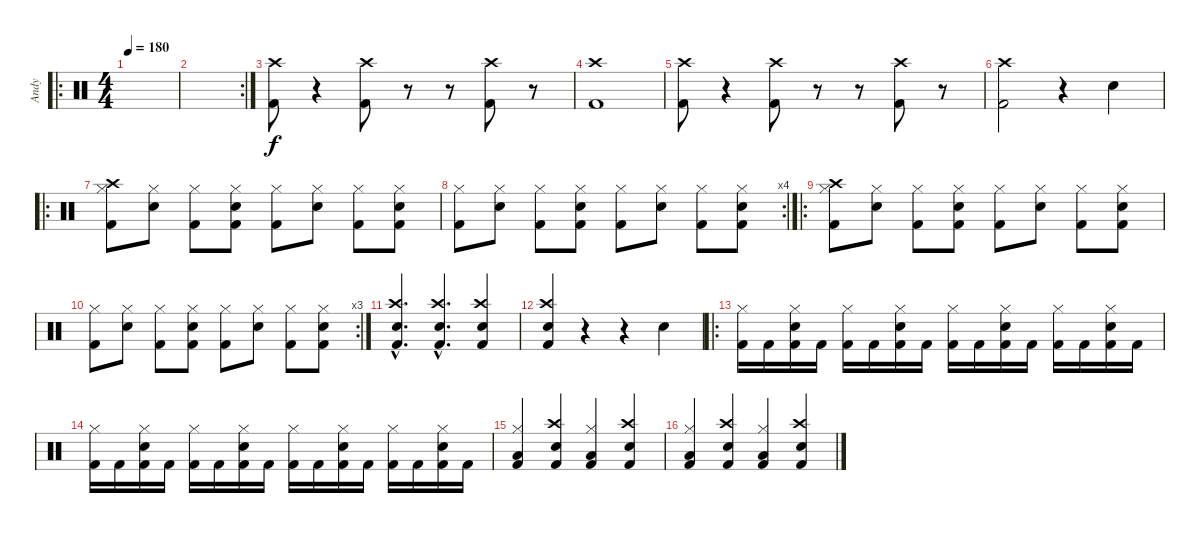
\track ("Andy" "Andy") {instrument percussion}
\staff {score}
\articulation defaults
\ro
\ts (4 4)
\tempo 180
\clef neutral
\ks c
|
\rc 2
|
("Kick (hit) 2" "Crash high (hit)").8 r.4 ("Kick (hit) 2" "Crash high (hit)").8 r.8 r.8 ("Kick (hit) 2" "Crash high (hit)").8 r.8 |
("Kick (hit) 2" "Crash high (hit)").1 |
("Kick (hit) 2" "Crash high (hit)").8 r.4 ("Kick (hit) 2" "Crash high (hit)").8 r.8 r.8 ("Kick (hit) 2" "Crash high (hit)").8 r.8 |
("Kick (hit) 2" "Crash high (hit)").2 r.4 "Electric Snare (hit)".4 |
\ro
("Hi-Hat (closed)" "Kick (hit) 2" "Crash high (hit)").8 ("Hi-Hat (closed)" "Electric Snare (hit)").8 ("Hi-Hat (closed)" "Kick (hit) 2").8 ("Hi-Hat (closed)" "Electric Snare (hit)" "Kick (hit) 2").8 ("Hi-Hat (closed)" "Kick (hit) 2").8 ("Hi-Hat (closed)" "Electric Snare (hit)").8 ("Hi-Hat (closed)" "Kick (hit) 2").8 ("Hi-Hat (closed)" "Electric Snare (hit)" "Kick (hit) 2").8 |
\rc 4
("Hi-Hat (closed)" "Kick (hit) 2").8 ("Hi-Hat (closed)" "Electric Snare (hit)").8 ("Hi-Hat (closed)" "Kick (hit) 2").8 ("Hi-Hat (closed)" "Electric Snare (hit)" "Kick (hit) 2").8 ("Hi-Hat (closed)" "Kick (hit) 2").8 ("Hi-Hat (closed)" "Electric Snare (hit)").8 ("Hi-Hat (closed)" "Kick (hit) 2").8 ("Hi-Hat (closed)" "Electric Snare (hit)" "Kick (hit) 2").8 |
\ro
("Hi-Hat (closed)" "Kick (hit) 2" "Crash high (hit)").8 ("Hi-Hat (closed)" "Electric Snare (hit)").8 ("Hi-Hat (closed)" "Kick (hit) 2").8 ("Hi-Hat (closed)" "Electric Snare (hit)" "Kick (hit) 2").8 ("Hi-Hat (closed)" "Kick (hit) 2").8 ("Hi-Hat (closed)" "Electric Snare (hit)").8 ("Hi-Hat (closed)" "Kick (hit) 2").8 ("Hi-Hat (closed)" "Electric Snare (hit)" "Kick (hit) 2").8 |
\rc 3
("Hi-Hat (closed)" "Kick (hit) 2").8 ("Hi-Hat (closed)" "Electric Snare (hit)").8 ("Hi-Hat (closed)" "Kick (hit) 2").8 ("Hi-Hat (closed)" "Electric Snare (hit)" "Kick (hit) 2").8 ("Hi-Hat (closed)" "Kick (hit) 2").8 ("Hi-Hat (closed)" "Electric Snare (hit)").8 ("Hi-Hat (closed)" "Kick (hit) 2").8 ("Hi-Hat (closed)" "Electric Snare (hit)" "Kick (hit) 2").8 |
("Electric Snare (hit)"{hac} "Crash high (hit)"{hac} "Kick (hit) 2"{hac}).4{d} ("Electric Snare (hit)"{hac} "Crash high (hit)"{hac} "Kick (hit) 2"{hac}).4{d} ("Electric Snare (hit)" "Crash high (hit)" "Kick (hit) 2").4 |
("Electric Snare (hit)" "Crash high (hit)" "Kick (hit) 2").4 r.4 r.4 "Electric Snare (hit)".4 |
\ro
("Kick (hit) 2" "Hi-Hat (closed)").16 "Kick (hit) 2".16 ("Kick (hit) 2" "Hi-Hat (closed)" "Electric Snare (hit)").16 "Kick (hit) 2".16 ("Kick (hit) 2" "Hi-Hat (closed)").16 "Kick (hit) 2".16 ("Kick (hit) 2" "Hi-Hat (closed)" "Electric Snare (hit)").16 "Kick (hit) 2".16 ("Kick (hit) 2" "Hi-Hat (closed)").16 "Kick (hit) 2".16 ("Kick (hit) 2" "Hi-Hat (closed)" "Electric Snare (hit)").16 "Kick (hit) 2".16 ("Kick (hit) 2" "Hi-Hat (closed)").16 "Kick (hit) 2".16 ("Kick (hit) 2" "Hi-Hat (closed)" "Electric Snare (hit)").16 "Kick (hit) 2".16 |
("Kick (hit) 2" "Hi-Hat (closed)").16 "Kick (hit) 2".16 ("Kick (hit) 2" "Hi-Hat (closed)" "Electric Snare (hit)").16 "Kick (hit) 2".16 ("Kick (hit) 2" "Hi-Hat (closed)").16 "Kick (hit) 2".16 ("Kick (hit) 2" "Hi-Hat (closed)" "Electric Snare (hit)").16 "Kick (hit) 2".16 ("Kick (hit) 2" "Hi-Hat (closed)").16 "Kick (hit) 2".16 ("Kick (hit) 2" "Hi-Hat (closed)" "Electric Snare (hit)").16 "Kick (hit) 2".16 ("Kick (hit) 2" "Hi-Hat (closed)").16 "Kick (hit) 2".16 ("Kick (hit) 2" "Hi-Hat (closed)" "Electric Snare (hit)").16 "Kick (hit) 2".16 |
("Kick (hit) 2" "Low Tom (hit)" "Hi-Hat (closed)").4 ("Kick (hit) 2" "Electric Snare (hit)" "Crash high (hit)").4 ("Kick (hit) 2" "Low Tom (hit)" "Hi-Hat (closed)").4 ("Kick (hit) 2" "Electric Snare (hit)" "Crash high (hit)").4 |
("Kick (hit) 2" "Low Tom (hit)" "Hi-Hat (closed)").4 ("Kick (hit) 2" "Electric Snare (hit)" "Crash high (hit)").4 ("Kick (hit) 2" "Low Tom (hit)" "Hi-Hat (closed)").4 ("Kick (hit) 2" "Electric Snare (hit)" "Crash high (hit)").4
